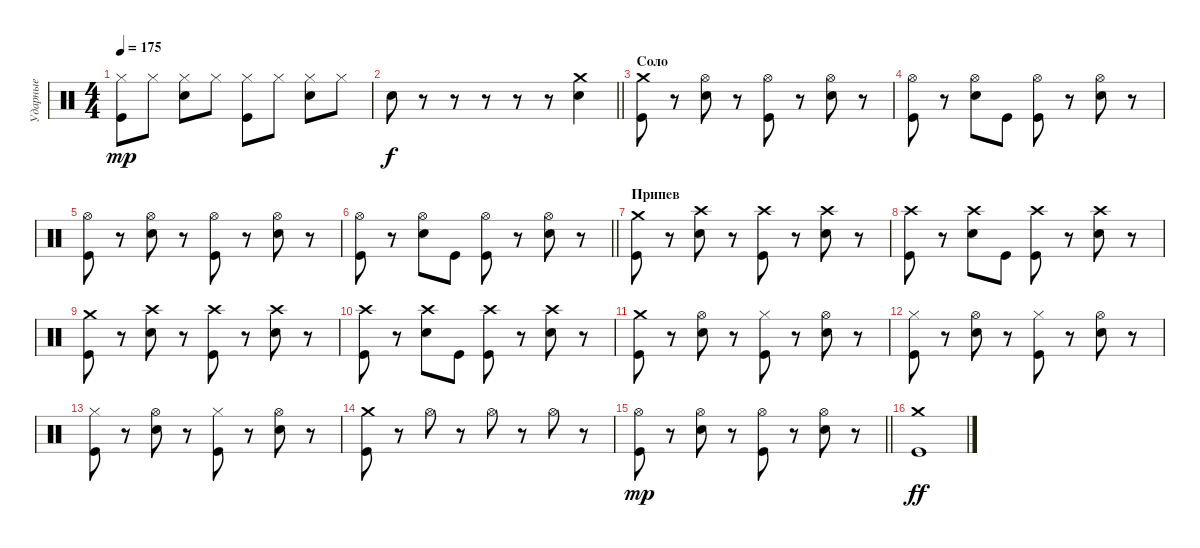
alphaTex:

\track ("Ударные" "Ударные") {instrument percussion}
\staff {score}
\articulation defaults
\ts (4 4)
\tempo 175
\clef neutral
\ks c
("Hi-Hat (closed)" "Kick (hit)").8{dy mp} "Hi-Hat (closed)".8 ("Hi-Hat (closed)" "Electric Snare (hit)").8 "Hi-Hat (closed)".8 ("Hi-Hat (closed)" "Kick (hit)").8 "Hi-Hat (closed)".8 ("Hi-Hat (closed)" "Electric Snare (hit)").8 "Hi-Hat (closed)".8 |
\barLineRight lightlight "Electric Snare (hit)".8{dy f}
r.8 r.8 r.8 r.8 r.8 ("Crash medium (hit)" "Electric Snare (hit)").4 |
\section ("" "Соло")
("Crash medium (hit)" "Kick (hit)").8 r.8 ("Hi-Hat (open)" "Electric Snare (hit)").8 r.8 ("Hi-Hat (open)" "Kick (hit)").8 r.8 ("Hi-Hat (open)" "Electric Snare (hit)").8 r.8 |
("Hi-Hat (open)" "Kick (hit)").8 r.8 ("Hi-Hat (open)" "Electric Snare (hit)").8 "Kick (hit)".8 ("Hi-Hat (open)" "Kick (hit)").8 r.8 ("Hi-Hat (open)" "Electric Snare (hit)").8 r.8 |
("Hi-Hat (open)" "Kick (hit)").8 r.8 ("Hi-Hat (open)" "Electric Snare (hit)").8 r.8 ("Hi-Hat (open)" "Kick (hit)").8 r.8 ("Hi-Hat (open)" "Electric Snare (hit)").8 r.8 |
\barLineRight lightlight
("Hi-Hat (open)" "Kick (hit)").8 r.8 ("Hi-Hat (open)" "Electric Snare (hit)").8 "Kick (hit)".8 ("Hi-Hat (open)" "Kick (hit)").8 r.8 ("Hi-Hat (open)" "Electric Snare (hit)").8 r.8 |
\section ("" "Припев")
("Crash medium (hit)" "Kick (hit)").8 r.8 ("Crash high (hit)" "Electric Snare (hit)").8 r.8 ("Crash high (hit)" "Kick (hit)").8 r.8 ("Crash high (hit)" "Electric Snare (hit)").8 r.8 |
("Crash high (hit)" "Kick (hit)").8 r.8 ("Crash high (hit)" "Electric Snare (hit)").8 "Kick (hit)".8 ("Crash high (hit)" "Kick (hit)").8 r.8 ("Crash high (hit)" "Electric Snare (hit)").8 r.8 |
("Crash medium (hit)" "Kick (hit)").8 r.8 ("Crash high (hit)" "Electric Snare (hit)").8 r.8 ("Crash high (hit)" "Kick (hit)").8 r.8 ("Crash high (hit)" "Electric Snare (hit)").8 r.8 |
("Crash high (hit)" "Kick (hit)").8 r.8 ("Crash high (hit)" "Electric Snare (hit)").8 "Kick (hit)".8 ("Crash high (hit)" "Kick (hit)").8 r.8 ("Crash high (hit)" "Electric Snare (hit)").8 r.8 |
("Crash medium (hit)" "Kick (hit)").8 r.8 ("Hi-Hat (open)" "Electric Snare (hit)").8 r.8 ("Hi-Hat (closed)" "Kick (hit)").8 r.8 ("Hi-Hat (open)" "Electric Snare (hit)").8 r.8 |
("Hi-Hat (closed)" "Kick (hit)").8 r.8 ("Hi-Hat (open)" "Electric Snare (hit)").8 r.8 ("Hi-Hat (closed)" "Kick (hit)").8 r.8 ("Hi-Hat (open)" "Electric Snare (hit)").8 r.8 |
("Hi-Hat (closed)" "Kick (hit)").8 r.8 ("Hi-Hat (open)" "Electric Snare (hit)").8 r.8 ("Hi-Hat (closed)" "Kick (hit)").8 r.8 ("Hi-Hat (open)" "Electric Snare (hit)").8 r.8 |
("Crash medium (hit)" "Kick (hit)").8 r.8 "Hi-Hat (open)".8 r.8 "Hi-Hat (open)".8 r.8 "Hi-Hat (open)".8 r.8 |
\barLineRight lightlight
("Hi-Hat (open)" "Kick (hit)").8{dy mp} r.8 ("Hi-Hat (open)" "Electric Snare (hit)").8 r.8 ("Hi-Hat (open)" "Kick (hit)").8 r.8 ("Hi-Hat (open)" "Electric Snare (hit)").8 r.8 |
("Crash medium (hit)" "Kick (hit)").1{dy ff}
